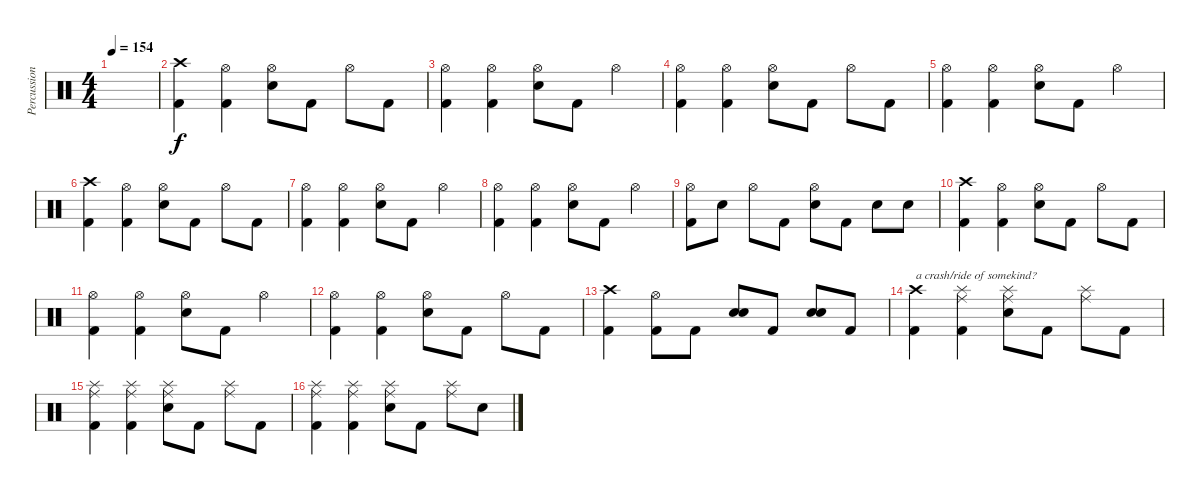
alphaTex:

\track ("Percussion" "Percussion") {instrument percussion}
\staff {score}
\articulation defaults
\ts (4 4)
\tempo 154
\clef neutral
\ks c
|
("Crash high (hit)" "Kick (hit) 2").4 ("Hi-Hat (open)" "Kick (hit) 2").4 ("Hi-Hat (open)" "Electric Snare (hit)").8 "Kick (hit) 2".8 "Hi-Hat (open)".8 "Kick (hit) 2".8 |
("Hi-Hat (open)" "Kick (hit) 2").4 ("Hi-Hat (open)" "Kick (hit) 2").4 ("Hi-Hat (open)" "Electric Snare (hit)").8 "Kick (hit) 2".8 "Hi-Hat (open)".4 |
("Hi-Hat (open)" "Kick (hit) 2").4 ("Hi-Hat (open)" "Kick (hit) 2").4 ("Hi-Hat (open)" "Electric Snare (hit)").8 "Kick (hit) 2".8 "Hi-Hat (open)".8 "Kick (hit) 2".8 |
("Hi-Hat (open)" "Kick (hit) 2").4 ("Hi-Hat (open)" "Kick (hit) 2").4 ("Hi-Hat (open)" "Electric Snare (hit)").8 "Kick (hit) 2".8 "Hi-Hat (open)".4 |
("Crash high (hit)" "Kick (hit) 2").4 ("Hi-Hat (open)" "Kick (hit) 2").4 ("Hi-Hat (open)" "Electric Snare (hit)").8 "Kick (hit) 2".8 "Hi-Hat (open)".8 "Kick (hit) 2".8 |
("Hi-Hat (open)" "Kick (hit) 2").4 ("Hi-Hat (open)" "Kick (hit) 2").4 ("Hi-Hat (open)" "Electric Snare (hit)").8 "Kick (hit) 2".8 "Hi-Hat (open)".4 |
("Hi-Hat (open)" "Kick (hit) 2").4 ("Hi-Hat (open)" "Kick (hit) 2").4 ("Hi-Hat (open)" "Electric Snare (hit)").8 "Kick (hit) 2".8 "Hi-Hat (open)".4 |
("Hi-Hat (open)" "Kick (hit) 2").8 "Electric Snare (hit)".8 "Hi-Hat (open)".8 "Kick (hit) 2".8 ("Hi-Hat (open)" "Electric Snare (hit)").8 "Kick (hit) 2".8 "Electric Snare (hit)".8 "Electric Snare (hit)".8 |
("Crash high (hit)" "Kick (hit) 2").4 ("Hi-Hat (open)" "Kick (hit) 2").4 ("Hi-Hat (open)" "Electric Snare (hit)").8 "Kick (hit) 2".8 "Hi-Hat (open)".8 "Kick (hit) 2".8 |
("Hi-Hat (open)" "Kick (hit) 2").4 ("Hi-Hat (open)" "Kick (hit) 2").4 ("Hi-Hat (open)" "Electric Snare (hit)").8 "Kick (hit) 2".8 "Hi-Hat (open)".4 |
("Hi-Hat (open)" "Kick (hit) 2").4 ("Hi-Hat (open)" "Kick (hit) 2").4 ("Hi-Hat (open)" "Electric Snare (hit)").8 "Kick (hit) 2".8 "Hi-Hat (open)".8 "Kick (hit) 2".8 |
("Crash high (hit)" "Kick (hit) 2").4 ("Hi-Hat (open)" "Kick (hit) 2").8 "Kick (hit) 2".8 ("Electric Snare (hit)" "Electric Snare (hit)").8 "Kick (hit) 2".8 ("Electric Snare (hit)" "Electric Snare (hit)").8 "Kick (hit) 2".8 |
("Crash high (hit)" "Kick (hit) 2").4{txt "a crash/ride of somekind?"} ("Splash (hit)" "Ride (middle)" "Kick (hit) 2").4 ("Splash (hit)" "Ride (middle)" "Electric Snare (hit)").8 "Kick (hit) 2".8 ("Splash (hit)" "Ride (middle)").8 "Kick (hit) 2".8 |
("Splash (hit)" "Ride (middle)" "Kick (hit) 2").4 ("Splash (hit)" "Ride (middle)" "Kick (hit) 2").4 ("Splash (hit)" "Ride (middle)" "Electric Snare (hit)").8 "Kick (hit) 2".8 ("Splash (hit)" "Ride (middle)").8 "Kick (hit) 2".8 |
("Splash (hit)" "Ride (middle)" "Kick (hit) 2").4 ("Splash (hit)" "Ride (middle)" "Kick (hit) 2").4 ("Splash (hit)" "Ride (middle)" "Electric Snare (hit)").8 "Kick (hit) 2".8 ("Splash (hit)" "Ride (middle)").8 "Electric Snare (hit)".8
